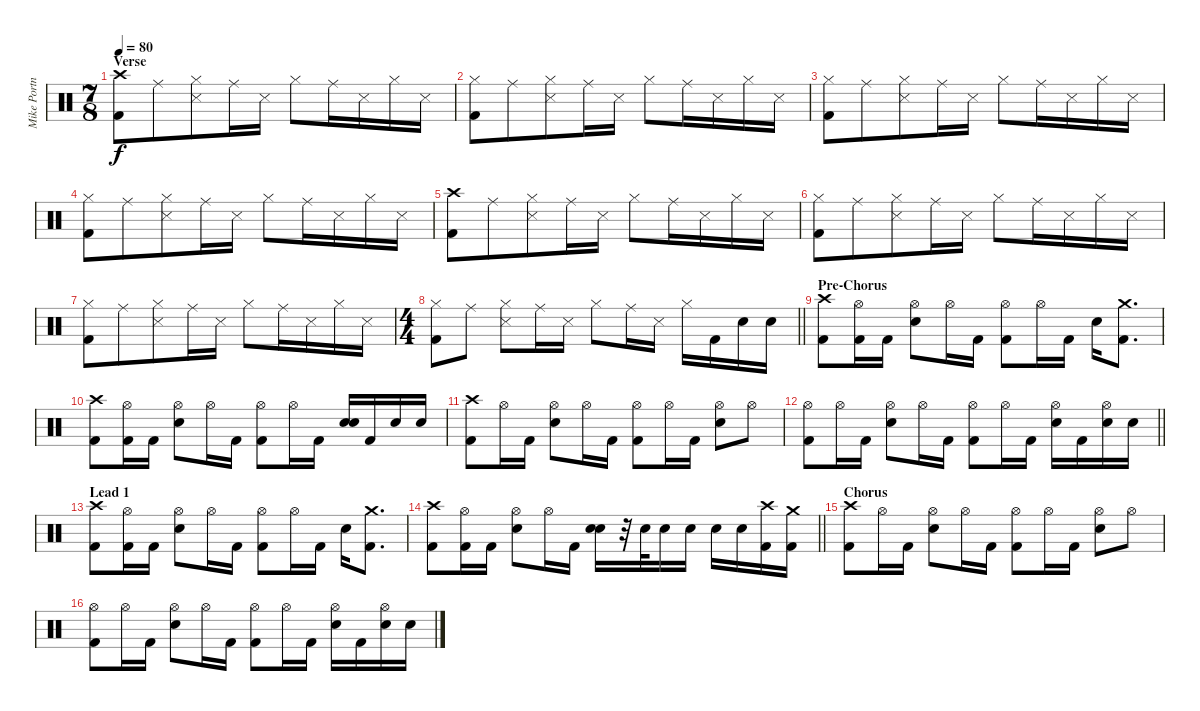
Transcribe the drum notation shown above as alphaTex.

\track ("Mike Portnoy" "Mike Portn") {instrument percussion}
\staff {score}
\articulation defaults
\ts (7 8)
\section ("" "Verse")
\tempo 80
\clef neutral
\ks c
("Kick (hit) 2" "Crash high (hit)").8{dy f} "Ride (middle)".8 ("Hi-Hat (closed)" "Snare (side stick) 3").8 "Ride (middle)".16 "Snare (side stick) 3".16 "Hi-Hat (closed)".8 "Ride (middle)".16 "Snare (side stick) 3".16 "Hi-Hat (closed)".16 "Snare (side stick) 3".16 |
("Kick (hit) 2" "Hi-Hat (closed)").8 "Ride (middle)".8 ("Hi-Hat (closed)" "Snare (side stick) 3").8 "Ride (middle)".16 "Snare (side stick) 3".16 "Hi-Hat (closed)".8 "Ride (middle)".16 "Snare (side stick) 3".16 "Hi-Hat (closed)".16 "Snare (side stick) 3".16 |
("Kick (hit) 2" "Hi-Hat (closed)").8 "Ride (middle)".8 ("Hi-Hat (closed)" "Snare (side stick) 3").8 "Ride (middle)".16 "Snare (side stick) 3".16 "Hi-Hat (closed)".8 "Ride (middle)".16 "Snare (side stick) 3".16 "Hi-Hat (closed)".16 "Snare (side stick) 3".16 |
("Kick (hit) 2" "Hi-Hat (closed)").8 "Ride (middle)".8 ("Hi-Hat (closed)" "Snare (side stick) 3").8 "Ride (middle)".16 "Snare (side stick) 3".16 "Hi-Hat (closed)".8 "Ride (middle)".16 "Snare (side stick) 3".16 "Hi-Hat (closed)".16 "Snare (side stick) 3".16 |
("Kick (hit) 2" "Crash high (hit)").8 "Ride (middle)".8 ("Hi-Hat (closed)" "Snare (side stick) 3").8 "Ride (middle)".16 "Snare (side stick) 3".16 "Hi-Hat (closed)".8 "Ride (middle)".16 "Snare (side stick) 3".16 "Hi-Hat (closed)".16 "Snare (side stick) 3".16 |
("Kick (hit) 2" "Hi-Hat (closed)").8 "Ride (middle)".8 ("Hi-Hat (closed)" "Snare (side stick) 3").8 "Ride (middle)".16 "Snare (side stick) 3".16 "Hi-Hat (closed)".8 "Ride (middle)".16 "Snare (side stick) 3".16 "Hi-Hat (closed)".16 "Snare (side stick) 3".16 |
("Kick (hit) 2" "Hi-Hat (closed)").8 "Ride (middle)".8 ("Hi-Hat (closed)" "Snare (side stick) 3").8 "Ride (middle)".16 "Snare (side stick) 3".16 "Hi-Hat (closed)".8 "Ride (middle)".16 "Snare (side stick) 3".16 "Hi-Hat (closed)".16 "Snare (side stick) 3".16 |
\ts (4 4)
\barLineRight lightlight
("Kick (hit) 2" "Hi-Hat (closed)").8 "Ride (middle)".8 ("Hi-Hat (closed)" "Snare (side stick) 3").8 "Ride (middle)".16 "Snare (side stick) 3".16 "Hi-Hat (closed)".8 "Ride (middle)".16 "Snare (side stick) 3".16 "Hi-Hat (closed)".16 "Kick (hit) 2".16 "Electric Snare (hit)".16 "Electric Snare (hit)".16 |
\section ("" "Pre-Chorus")
("Kick (hit) 2" "Crash high (hit)").8 ("Kick (hit) 2" "Hi-Hat (open)").16 "Kick (hit) 2".16 ("Electric Snare (hit)" "Hi-Hat (open)").8 "Hi-Hat (open)".16 "Kick (hit) 2".16 ("Kick (hit) 2" "Hi-Hat (open)").8 "Hi-Hat (open)".16 "Kick (hit) 2".16 "Electric Snare (hit)".16 ("Kick (hit) 2" "Crash medium (hit)").8{d} |
("Kick (hit) 2" "Crash high (hit)").8 ("Kick (hit) 2" "Hi-Hat (open)").16 "Kick (hit) 2".16 ("Electric Snare (hit)" "Hi-Hat (open)").8 "Hi-Hat (open)".16 "Kick (hit) 2".16 ("Kick (hit) 2" "Hi-Hat (open)").8 "Hi-Hat (open)".16 "Kick (hit) 2".16 ("Electric Snare (hit)" "Electric Snare (hit)").16{bd 240} "Kick (hit) 2".16 "Electric Snare (hit)".16 "Electric Snare (hit)".16 |
("Kick (hit) 2" "Crash high (hit)").8 "Hi-Hat (open)".16 "Kick (hit) 2".16 ("Electric Snare (hit)" "Hi-Hat (open)").8 "Hi-Hat (open)".16 "Kick (hit) 2".16 ("Kick (hit) 2" "Hi-Hat (open)").8 "Hi-Hat (open)".16 "Kick (hit) 2".16 ("Electric Snare (hit)" "Hi-Hat (open)").8 "Hi-Hat (open)".8 |
\barLineRight lightlight
("Kick (hit) 2" "Hi-Hat (open)").8 "Hi-Hat (open)".16 "Kick (hit) 2".16 ("Electric Snare (hit)" "Hi-Hat (open)").8 "Hi-Hat (open)".16 "Kick (hit) 2".16 ("Kick (hit) 2" "Hi-Hat (open)").8 "Hi-Hat (open)".16 "Kick (hit) 2".16 ("Electric Snare (hit)" "Hi-Hat (open)").16 "Kick (hit) 2".16 ("Electric Snare (hit)" "Hi-Hat (open)").16 "Electric Snare (hit)".16 |
\section ("" "Lead 1")
("Kick (hit) 2" "Crash high (hit)").8 ("Kick (hit) 2" "Hi-Hat (open)").16 "Kick (hit) 2".16 ("Electric Snare (hit)" "Hi-Hat (open)").8 "Hi-Hat (open)".16 "Kick (hit) 2".16 ("Kick (hit) 2" "Hi-Hat (open)").8 "Hi-Hat (open)".16 "Kick (hit) 2".16 "Electric Snare (hit)".16 ("Kick (hit) 2" "Crash medium (hit)").8{d} |
\barLineRight lightlight
("Kick (hit) 2" "Crash high (hit)").8 ("Kick (hit) 2" "Hi-Hat (open)").16 "Kick (hit) 2".16 ("Electric Snare (hit)" "Hi-Hat (open)").8 "Hi-Hat (open)".16 "Kick (hit) 2".16 ("Electric Snare (hit)" "Electric Snare (hit)").16{bu 240} r.32 "Electric Snare (hit)".32 "Electric Snare (hit)".16 "Electric Snare (hit)".16 "Electric Snare (hit)".16 "Electric Snare (hit)".16 ("Kick (hit) 2" "Crash high (hit)").16 ("Kick (hit) 2" "Crash medium (hit)").16 |
\section ("" "Chorus")
("Kick (hit) 2" "Crash high (hit)").8 "Hi-Hat (open)".16 "Kick (hit) 2".16 ("Electric Snare (hit)" "Hi-Hat (open)").8 "Hi-Hat (open)".16 "Kick (hit) 2".16 ("Kick (hit) 2" "Hi-Hat (open)").8 "Hi-Hat (open)".16 "Kick (hit) 2".16 ("Electric Snare (hit)" "Hi-Hat (open)").8 "Hi-Hat (open)".8 |
("Kick (hit) 2" "Hi-Hat (open)").8 "Hi-Hat (open)".16 "Kick (hit) 2".16 ("Electric Snare (hit)" "Hi-Hat (open)").8 "Hi-Hat (open)".16 "Kick (hit) 2".16 ("Kick (hit) 2" "Hi-Hat (open)").8 "Hi-Hat (open)".16 "Kick (hit) 2".16 ("Electric Snare (hit)" "Hi-Hat (open)").16 "Kick (hit) 2".16 ("Electric Snare (hit)" "Hi-Hat (open)").16 "Electric Snare (hit)".16
